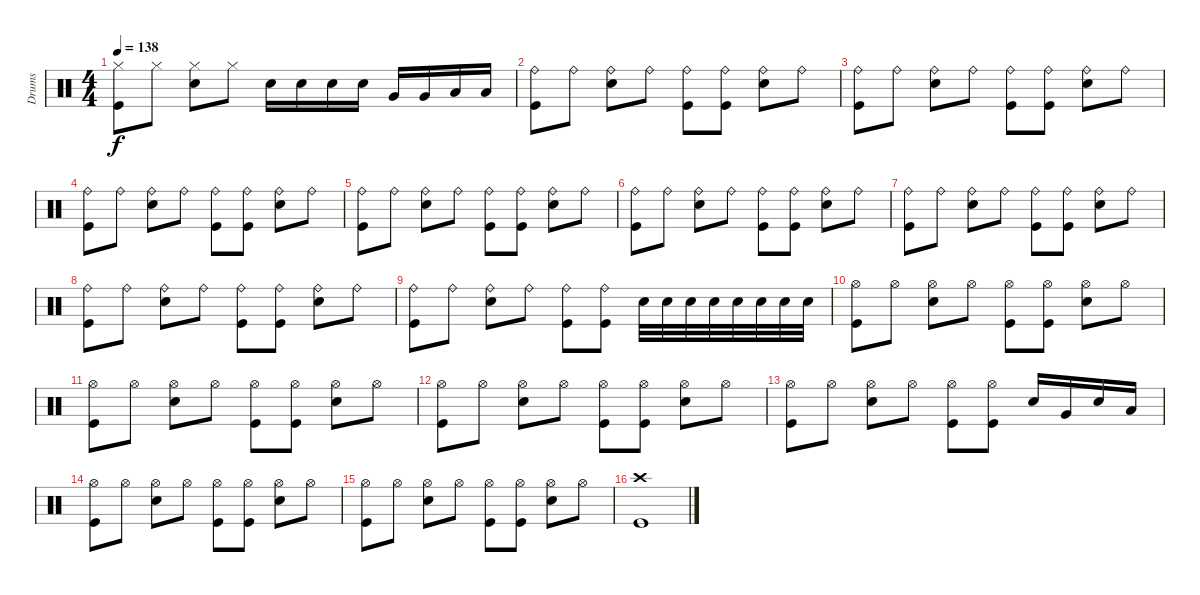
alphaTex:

\track ("Drums" "Drums") {instrument percussion}
\staff {score}
\articulation defaults
\ts (4 4)
\tempo 138
\clef neutral
\ks c
("Hi-Hat (closed)" "Kick (hit)").8{dy f} "Hi-Hat (closed)".8 ("Hi-Hat (closed)" "Snare (hit) 2").8 "Hi-Hat (closed)".8 "Snare (hit) 2".16 "Snare (hit) 2".16 "Snare (hit) 2".16 "Snare (hit) 2".16 "Very Low Tom (hit)".16 "Very Low Tom (hit)".16 "Low Tom (hit)".16 "Low Tom (hit)".16 |
("Ride (bell)" "Kick (hit)").8 "Ride (bell)".8 ("Ride (bell)" "Snare (hit) 2").8 "Ride (bell)".8 ("Ride (bell)" "Kick (hit)").8 ("Ride (bell)" "Kick (hit)").8 ("Ride (bell)" "Snare (hit) 2").8 "Ride (bell)".8 |
("Ride (bell)" "Kick (hit)").8 "Ride (bell)".8 ("Ride (bell)" "Snare (hit) 2").8 "Ride (bell)".8 ("Ride (bell)" "Kick (hit)").8 ("Ride (bell)" "Kick (hit)").8 ("Ride (bell)" "Snare (hit) 2").8 "Ride (bell)".8 |
("Ride (bell)" "Kick (hit)").8 "Ride (bell)".8 ("Ride (bell)" "Snare (hit) 2").8 "Ride (bell)".8 ("Ride (bell)" "Kick (hit)").8 ("Ride (bell)" "Kick (hit)").8 ("Ride (bell)" "Snare (hit) 2").8 "Ride (bell)".8 |
("Ride (bell)" "Kick (hit)").8 "Ride (bell)".8 ("Ride (bell)" "Snare (hit) 2").8 "Ride (bell)".8 ("Ride (bell)" "Kick (hit)").8 ("Ride (bell)" "Kick (hit)").8 ("Ride (bell)" "Snare (hit) 2").8 "Ride (bell)".8 |
("Ride (bell)" "Kick (hit)").8 "Ride (bell)".8 ("Ride (bell)" "Snare (hit) 2").8 "Ride (bell)".8 ("Ride (bell)" "Kick (hit)").8 ("Ride (bell)" "Kick (hit)").8 ("Ride (bell)" "Snare (hit) 2").8 "Ride (bell)".8 |
("Ride (bell)" "Kick (hit)").8 "Ride (bell)".8 ("Ride (bell)" "Snare (hit) 2").8 "Ride (bell)".8 ("Ride (bell)" "Kick (hit)").8 ("Ride (bell)" "Kick (hit)").8 ("Ride (bell)" "Snare (hit) 2").8 "Ride (bell)".8 |
("Ride (bell)" "Kick (hit)").8 "Ride (bell)".8 ("Ride (bell)" "Snare (hit) 2").8 "Ride (bell)".8 ("Ride (bell)" "Kick (hit)").8 ("Ride (bell)" "Kick (hit)").8 ("Ride (bell)" "Snare (hit) 2").8 "Ride (bell)".8 |
("Ride (bell)" "Kick (hit)").8 "Ride (bell)".8 ("Ride (bell)" "Snare (hit) 2").8 "Ride (bell)".8 ("Ride (bell)" "Kick (hit)").8 ("Ride (bell)" "Kick (hit)").8 "Snare (hit) 2".32 "Snare (hit) 2".32 "Snare (hit) 2".32 "Snare (hit) 2".32 "Snare (hit) 2".32 "Snare (hit) 2".32 "Snare (hit) 2".32 "Snare (hit) 2".32 |
("Hi-Hat (open)" "Kick (hit)").8 "Hi-Hat (open)".8 ("Hi-Hat (open)" "Snare (hit) 2").8 "Hi-Hat (open)".8 ("Hi-Hat (open)" "Kick (hit)").8 ("Hi-Hat (open)" "Kick (hit)").8 ("Hi-Hat (open)" "Snare (hit) 2").8 "Hi-Hat (open)".8 |
("Hi-Hat (open)" "Kick (hit)").8 "Hi-Hat (open)".8 ("Hi-Hat (open)" "Snare (hit) 2").8 "Hi-Hat (open)".8 ("Hi-Hat (open)" "Kick (hit)").8 ("Hi-Hat (open)" "Kick (hit)").8 ("Hi-Hat (open)" "Snare (hit) 2").8 "Hi-Hat (open)".8 |
("Hi-Hat (open)" "Kick (hit)").8 "Hi-Hat (open)".8 ("Hi-Hat (open)" "Snare (hit) 2").8 "Hi-Hat (open)".8 ("Hi-Hat (open)" "Kick (hit)").8 ("Hi-Hat (open)" "Kick (hit)").8 ("Hi-Hat (open)" "Snare (hit) 2").8 "Hi-Hat (open)".8 |
("Hi-Hat (open)" "Kick (hit)").8 "Hi-Hat (open)".8 ("Hi-Hat (open)" "Snare (hit) 2").8 "Hi-Hat (open)".8 ("Hi-Hat (open)" "Kick (hit)").8 ("Hi-Hat (open)" "Kick (hit)").8 "Snare (hit) 2".16 "Very Low Tom (hit)".16 "Snare (hit) 2".16 "Low Tom (hit)".16 |
("Hi-Hat (open)" "Kick (hit)").8 "Hi-Hat (open)".8 ("Hi-Hat (open)" "Snare (hit) 2").8 "Hi-Hat (open)".8 ("Hi-Hat (open)" "Kick (hit)").8 ("Hi-Hat (open)" "Kick (hit)").8 ("Hi-Hat (open)" "Snare (hit) 2").8 "Hi-Hat (open)".8 |
("Hi-Hat (open)" "Kick (hit)").8 "Hi-Hat (open)".8 ("Hi-Hat (open)" "Snare (hit) 2").8 "Hi-Hat (open)".8 ("Hi-Hat (open)" "Kick (hit)").8 ("Hi-Hat (open)" "Kick (hit)").8 ("Hi-Hat (open)" "Snare (hit) 2").8 "Hi-Hat (open)".8 |
("Crash high (hit)" "Kick (hit)").1
